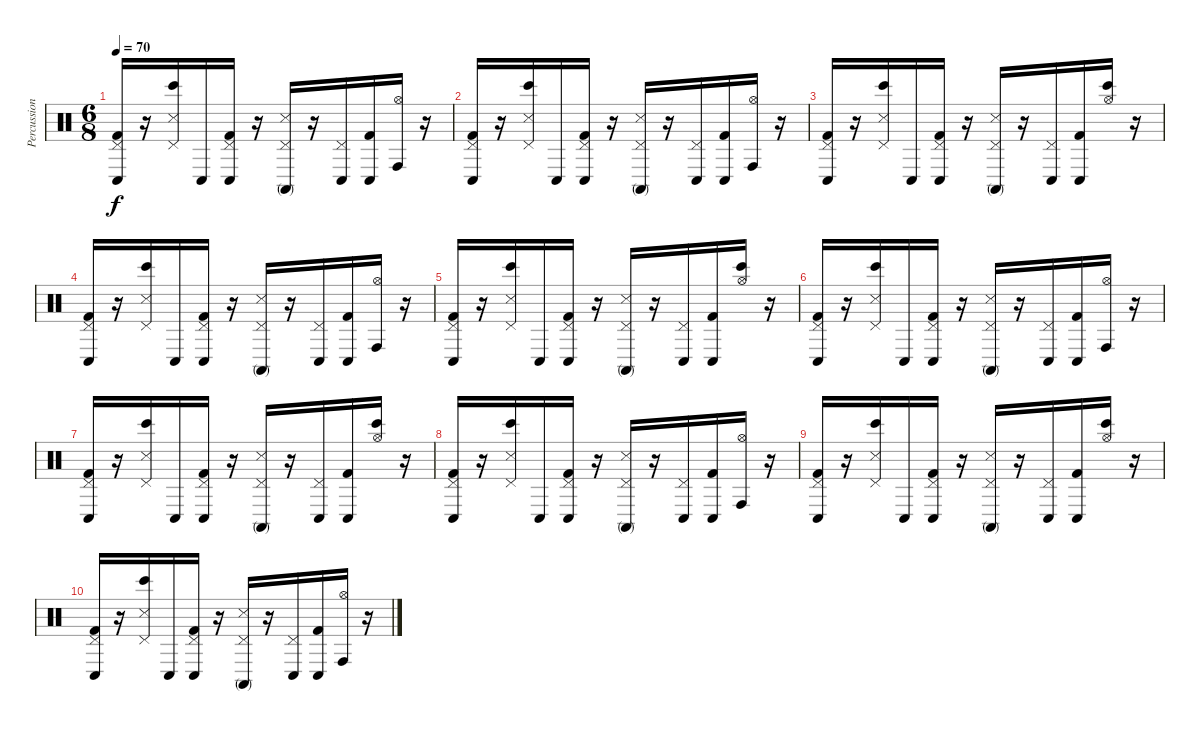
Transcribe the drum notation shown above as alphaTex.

\track ("Percussion" "Percussion") {instrument percussion}
\staff {score}
\articulation defaults
\ts (6 8)
\tempo 70
\clef neutral
\ks c
("Pedal Hi-Hat (hit)" "Conga low (hit)" "Kick (hit) 2").16{dy f} r.16 ("Pedal Hi-Hat (hit)" "Bongo High (hit)" "Snare (side stick) 3").16 "Conga low (hit)".16 ("Pedal Hi-Hat (hit)" "Conga low (hit)" "Kick (hit) 2").16 r.16 ("Pedal Hi-Hat (hit)" "Conga high (mute)" "Snare (side stick) 3").16 r.16 ("Pedal Hi-Hat (hit)" "Conga low (hit)").16 ("Conga low (hit)" "Kick (hit) 2").16 ("Hi-Hat (open)" "Conga high (hit)").16 r.16 |
("Pedal Hi-Hat (hit)" "Conga low (hit)" "Kick (hit) 2").16 r.16 ("Pedal Hi-Hat (hit)" "Bongo High (hit)" "Snare (side stick) 3").16 "Conga low (hit)".16 ("Pedal Hi-Hat (hit)" "Conga low (hit)" "Kick (hit) 2").16 r.16 ("Pedal Hi-Hat (hit)" "Conga high (mute)" "Snare (side stick) 3").16 r.16 ("Pedal Hi-Hat (hit)" "Conga low (hit)").16 ("Conga low (hit)" "Kick (hit) 2").16 ("Hi-Hat (open)" "Conga high (hit)").16 r.16 |
("Pedal Hi-Hat (hit)" "Conga low (hit)" "Kick (hit) 2").16 r.16 ("Pedal Hi-Hat (hit)" "Bongo High (hit)" "Snare (side stick) 3").16 "Conga low (hit)".16 ("Pedal Hi-Hat (hit)" "Conga low (hit)" "Kick (hit) 2").16 r.16 ("Pedal Hi-Hat (hit)" "Conga high (mute)" "Snare (side stick) 3").16 r.16 ("Pedal Hi-Hat (hit)" "Conga low (hit)").16 ("Conga low (hit)" "Kick (hit) 2").16 ("Hi-Hat (open)" "Bongo High (hit)").16 r.16 |
("Pedal Hi-Hat (hit)" "Conga low (hit)" "Kick (hit) 2").16 r.16 ("Pedal Hi-Hat (hit)" "Bongo High (hit)" "Snare (side stick) 3").16 "Conga low (hit)".16 ("Pedal Hi-Hat (hit)" "Conga low (hit)" "Kick (hit) 2").16 r.16 ("Pedal Hi-Hat (hit)" "Conga high (mute)" "Snare (side stick) 3").16 r.16 ("Pedal Hi-Hat (hit)" "Conga low (hit)").16 ("Conga low (hit)" "Kick (hit) 2").16 ("Hi-Hat (open)" "Conga high (hit)").16 r.16 |
("Pedal Hi-Hat (hit)" "Conga low (hit)" "Kick (hit) 2").16 r.16 ("Pedal Hi-Hat (hit)" "Bongo High (hit)" "Snare (side stick) 3").16 "Conga low (hit)".16 ("Pedal Hi-Hat (hit)" "Conga low (hit)" "Kick (hit) 2").16 r.16 ("Pedal Hi-Hat (hit)" "Conga high (mute)" "Snare (side stick) 3").16 r.16 ("Pedal Hi-Hat (hit)" "Conga low (hit)").16 ("Conga low (hit)" "Kick (hit) 2").16 ("Hi-Hat (open)" "Bongo High (hit)").16 r.16 |
("Pedal Hi-Hat (hit)" "Conga low (hit)" "Kick (hit) 2").16 r.16 ("Pedal Hi-Hat (hit)" "Bongo High (hit)" "Snare (side stick) 3").16 "Conga low (hit)".16 ("Pedal Hi-Hat (hit)" "Conga low (hit)" "Kick (hit) 2").16 r.16 ("Pedal Hi-Hat (hit)" "Conga high (mute)" "Snare (side stick) 3").16 r.16 ("Pedal Hi-Hat (hit)" "Conga low (hit)").16 ("Conga low (hit)" "Kick (hit) 2").16 ("Hi-Hat (open)" "Conga high (hit)").16 r.16 |
("Pedal Hi-Hat (hit)" "Conga low (hit)" "Kick (hit) 2").16 r.16 ("Pedal Hi-Hat (hit)" "Bongo High (hit)" "Snare (side stick) 3").16 "Conga low (hit)".16 ("Pedal Hi-Hat (hit)" "Conga low (hit)" "Kick (hit) 2").16 r.16 ("Pedal Hi-Hat (hit)" "Conga high (mute)" "Snare (side stick) 3").16 r.16 ("Pedal Hi-Hat (hit)" "Conga low (hit)").16 ("Conga low (hit)" "Kick (hit) 2").16 ("Hi-Hat (open)" "Bongo High (hit)").16 r.16 |
("Pedal Hi-Hat (hit)" "Conga low (hit)" "Kick (hit) 2").16 r.16 ("Pedal Hi-Hat (hit)" "Bongo High (hit)" "Snare (side stick) 3").16 "Conga low (hit)".16 ("Pedal Hi-Hat (hit)" "Conga low (hit)" "Kick (hit) 2").16 r.16 ("Pedal Hi-Hat (hit)" "Conga high (mute)" "Snare (side stick) 3").16 r.16 ("Pedal Hi-Hat (hit)" "Conga low (hit)").16 ("Conga low (hit)" "Kick (hit) 2").16 ("Hi-Hat (open)" "Conga high (hit)").16 r.16 |
("Pedal Hi-Hat (hit)" "Conga low (hit)" "Kick (hit) 2").16 r.16 ("Pedal Hi-Hat (hit)" "Bongo High (hit)" "Snare (side stick) 3").16 "Conga low (hit)".16 ("Pedal Hi-Hat (hit)" "Conga low (hit)" "Kick (hit) 2").16 r.16 ("Pedal Hi-Hat (hit)" "Conga high (mute)" "Snare (side stick) 3").16 r.16 ("Pedal Hi-Hat (hit)" "Conga low (hit)").16 ("Conga low (hit)" "Kick (hit) 2").16 ("Hi-Hat (open)" "Bongo High (hit)").16 r.16 |
("Pedal Hi-Hat (hit)" "Conga low (hit)" "Kick (hit) 2").16 r.16 ("Pedal Hi-Hat (hit)" "Bongo High (hit)" "Snare (side stick) 3").16 "Conga low (hit)".16 ("Pedal Hi-Hat (hit)" "Conga low (hit)" "Kick (hit) 2").16 r.16 ("Pedal Hi-Hat (hit)" "Conga high (mute)" "Snare (side stick) 3").16 r.16 ("Pedal Hi-Hat (hit)" "Conga low (hit)").16 ("Conga low (hit)" "Kick (hit) 2").16 ("Hi-Hat (open)" "Conga high (hit)").16 r.16
